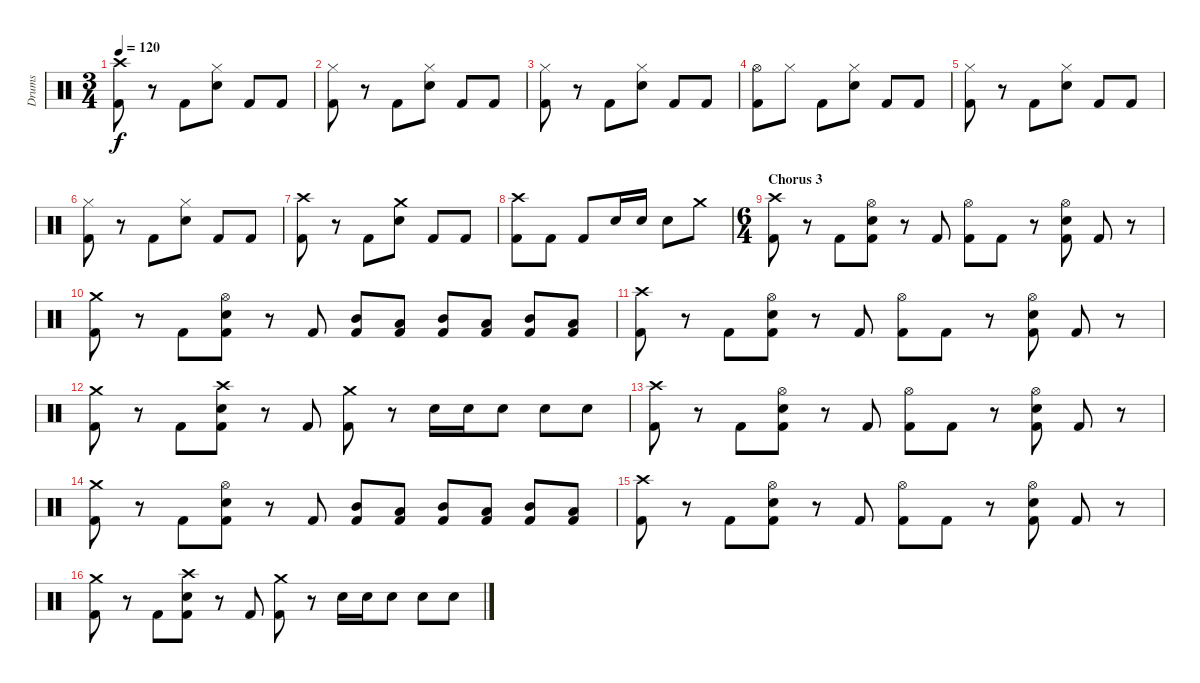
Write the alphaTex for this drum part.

\track ("Drums" "Drums") {instrument percussion}
\staff {score}
\articulation defaults
\ts (3 4)
\tempo 120
\clef neutral
\ks c
("Crash high (hit)" "Kick (hit) 2").8{dy f} r.8 "Kick (hit) 2".8 ("Hi-Hat (closed)" "Snare (hit) 2").8 "Kick (hit) 2".8 "Kick (hit) 2".8 |
("Hi-Hat (closed)" "Kick (hit) 2").8 r.8 "Kick (hit) 2".8 ("Hi-Hat (closed)" "Snare (hit) 2").8 "Kick (hit) 2".8 "Kick (hit) 2".8 |
("Hi-Hat (closed)" "Kick (hit) 2").8 r.8 "Kick (hit) 2".8 ("Hi-Hat (closed)" "Snare (hit) 2").8 "Kick (hit) 2".8 "Kick (hit) 2".8 |
("Hi-Hat (open)" "Kick (hit) 2").8 "Hi-Hat (closed)".8 "Kick (hit) 2".8 ("Hi-Hat (closed)" "Snare (hit) 2").8 "Kick (hit) 2".8 "Kick (hit) 2".8 |
("Hi-Hat (closed)" "Kick (hit) 2").8 r.8 "Kick (hit) 2".8 ("Hi-Hat (closed)" "Snare (hit) 2").8 "Kick (hit) 2".8 "Kick (hit) 2".8 |
("Hi-Hat (closed)" "Kick (hit) 2").8 r.8 "Kick (hit) 2".8 ("Hi-Hat (closed)" "Snare (hit) 2").8 "Kick (hit) 2".8 "Kick (hit) 2".8 |
("Crash high (hit)" "Kick (hit) 2").8 r.8 "Kick (hit) 2".8 ("Crash medium (hit)" "Snare (hit) 2").8 "Kick (hit) 2".8 "Kick (hit) 2".8 |
("Crash high (hit)" "Kick (hit) 2").8 "Kick (hit) 2".8 "Kick (hit) 2".8 "Snare (hit) 2".16 "Snare (hit) 2".16 "Snare (hit) 2".8 "Crash medium (hit)".8 |
\ts (6 4)
\section ("" "Chorus 3")
("Crash high (hit)" "Kick (hit) 2").8 r.8 "Kick (hit) 2".8 ("Hi-Hat (open)" "Snare (hit) 2" "Kick (hit) 2").8 r.8 "Kick (hit) 2".8 ("Hi-Hat (open)" "Kick (hit) 2").8 "Kick (hit) 2".8 r.8 ("Hi-Hat (open)" "Snare (hit) 2" "Kick (hit) 2").8 "Kick (hit) 2".8 r.8 |
("Crash medium (hit)" "Kick (hit) 2").8 r.8 "Kick (hit) 2".8 ("Hi-Hat (open)" "Snare (hit) 2" "Kick (hit) 2").8 r.8 "Kick (hit) 2".8 ("Mid Tom (hit)" "Kick (hit) 2").8 ("Low Tom (hit)" "Kick (hit) 2").8 ("Mid Tom (hit)" "Kick (hit) 2").8 ("Low Tom (hit)" "Kick (hit) 2").8 ("Mid Tom (hit)" "Kick (hit) 2").8 ("Low Tom (hit)" "Kick (hit) 2").8 |
("Crash high (hit)" "Kick (hit) 2").8 r.8 "Kick (hit) 2".8 ("Hi-Hat (open)" "Snare (hit) 2" "Kick (hit) 2").8 r.8 "Kick (hit) 2".8 ("Hi-Hat (open)" "Kick (hit) 2").8 "Kick (hit) 2".8 r.8 ("Hi-Hat (open)" "Snare (hit) 2" "Kick (hit) 2").8 "Kick (hit) 2".8 r.8 |
("Crash medium (hit)" "Kick (hit) 2").8 r.8 "Kick (hit) 2".8 ("Crash high (hit)" "Snare (hit) 2" "Kick (hit) 2").8 r.8 "Kick (hit) 2".8 ("Crash medium (hit)" "Kick (hit) 2").8 r.8 "Snare (hit) 2".16 "Snare (hit) 2".16 "Snare (hit) 2".8 "Snare (hit) 2".8 "Snare (hit) 2".8 |
("Crash high (hit)" "Kick (hit) 2").8 r.8 "Kick (hit) 2".8 ("Hi-Hat (open)" "Snare (hit) 2" "Kick (hit) 2").8 r.8 "Kick (hit) 2".8 ("Hi-Hat (open)" "Kick (hit) 2").8 "Kick (hit) 2".8 r.8 ("Hi-Hat (open)" "Snare (hit) 2" "Kick (hit) 2").8 "Kick (hit) 2".8 r.8 |
("Crash medium (hit)" "Kick (hit) 2").8 r.8 "Kick (hit) 2".8 ("Hi-Hat (open)" "Snare (hit) 2" "Kick (hit) 2").8 r.8 "Kick (hit) 2".8 ("Mid Tom (hit)" "Kick (hit) 2").8 ("Low Tom (hit)" "Kick (hit) 2").8 ("Mid Tom (hit)" "Kick (hit) 2").8 ("Low Tom (hit)" "Kick (hit) 2").8 ("Mid Tom (hit)" "Kick (hit) 2").8 ("Low Tom (hit)" "Kick (hit) 2").8 |
("Crash high (hit)" "Kick (hit) 2").8 r.8 "Kick (hit) 2".8 ("Hi-Hat (open)" "Snare (hit) 2" "Kick (hit) 2").8 r.8 "Kick (hit) 2".8 ("Hi-Hat (open)" "Kick (hit) 2").8 "Kick (hit) 2".8 r.8 ("Hi-Hat (open)" "Snare (hit) 2" "Kick (hit) 2").8 "Kick (hit) 2".8 r.8 |
("Crash medium (hit)" "Kick (hit) 2").8 r.8 "Kick (hit) 2".8 ("Crash high (hit)" "Snare (hit) 2" "Kick (hit) 2").8 r.8 "Kick (hit) 2".8 ("Crash medium (hit)" "Kick (hit) 2").8 r.8 "Snare (hit) 2".16 "Snare (hit) 2".16 "Snare (hit) 2".8 "Snare (hit) 2".8 "Snare (hit) 2".8
